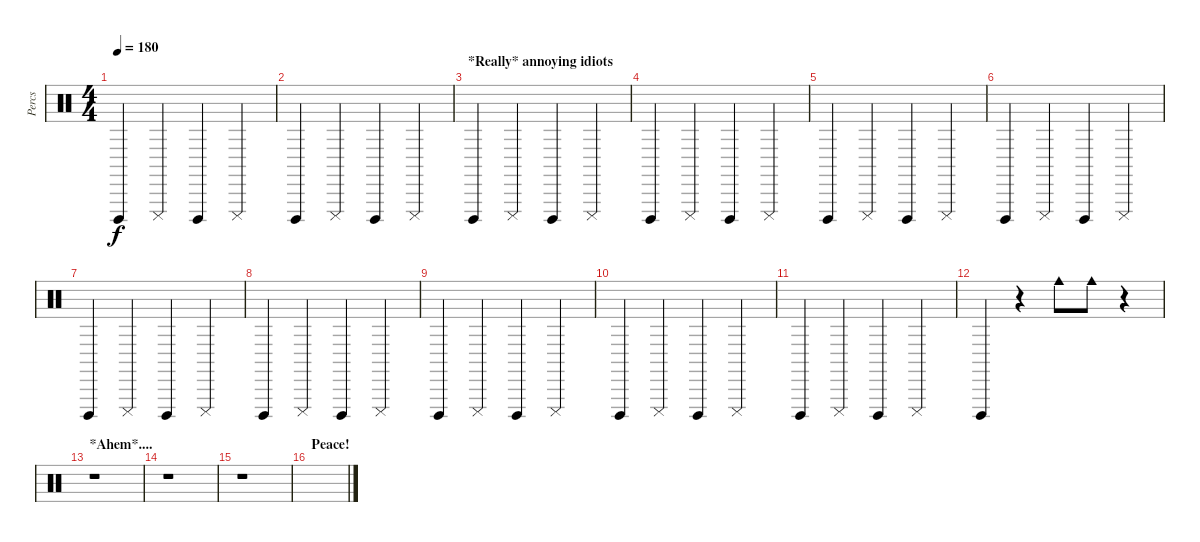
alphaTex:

\track ("Percs" "Percs") {instrument percussion}
\staff {score}
\articulation defaults
\ts (4 4)
\tempo 180
\clef neutral
\ks c "Cuica (open)".4{dy f} "Cuica (mute)".4 "Cuica (open)".4 "Cuica (mute)".4
|
"Cuica (open)".4 "Cuica (mute)".4 "Cuica (open)".4 "Cuica (mute)".4 |
\section ("" "*Really* annoying idiots")
"Cuica (open)".4 "Cuica (mute)".4 "Cuica (open)".4 "Cuica (mute)".4 |
"Cuica (open)".4 "Cuica (mute)".4 "Cuica (open)".4 "Cuica (mute)".4 |
"Cuica (open)".4 "Cuica (mute)".4 "Cuica (open)".4 "Cuica (mute)".4 |
"Cuica (open)".4 "Cuica (mute)".4 "Cuica (open)".4 "Cuica (mute)".4 |
"Cuica (open)".4 "Cuica (mute)".4 "Cuica (open)".4 "Cuica (mute)".4 |
"Cuica (open)".4 "Cuica (mute)".4 "Cuica (open)".4 "Cuica (mute)".4 |
"Cuica (open)".4 "Cuica (mute)".4 "Cuica (open)".4 "Cuica (mute)".4 |
"Cuica (open)".4 "Cuica (mute)".4 "Cuica (open)".4 "Cuica (mute)".4 |
"Cuica (open)".4 "Cuica (mute)".4 "Cuica (open)".4 "Cuica (mute)".4 |
"Cuica (open)".4 r.4 "Cowbell medium (hit)".8 "Cowbell medium (hit)".8 r.4 |
\section ("" "*Ahem*....")
r.1 |
r.1 |
r.1 |
\section ("" "Peace!")
